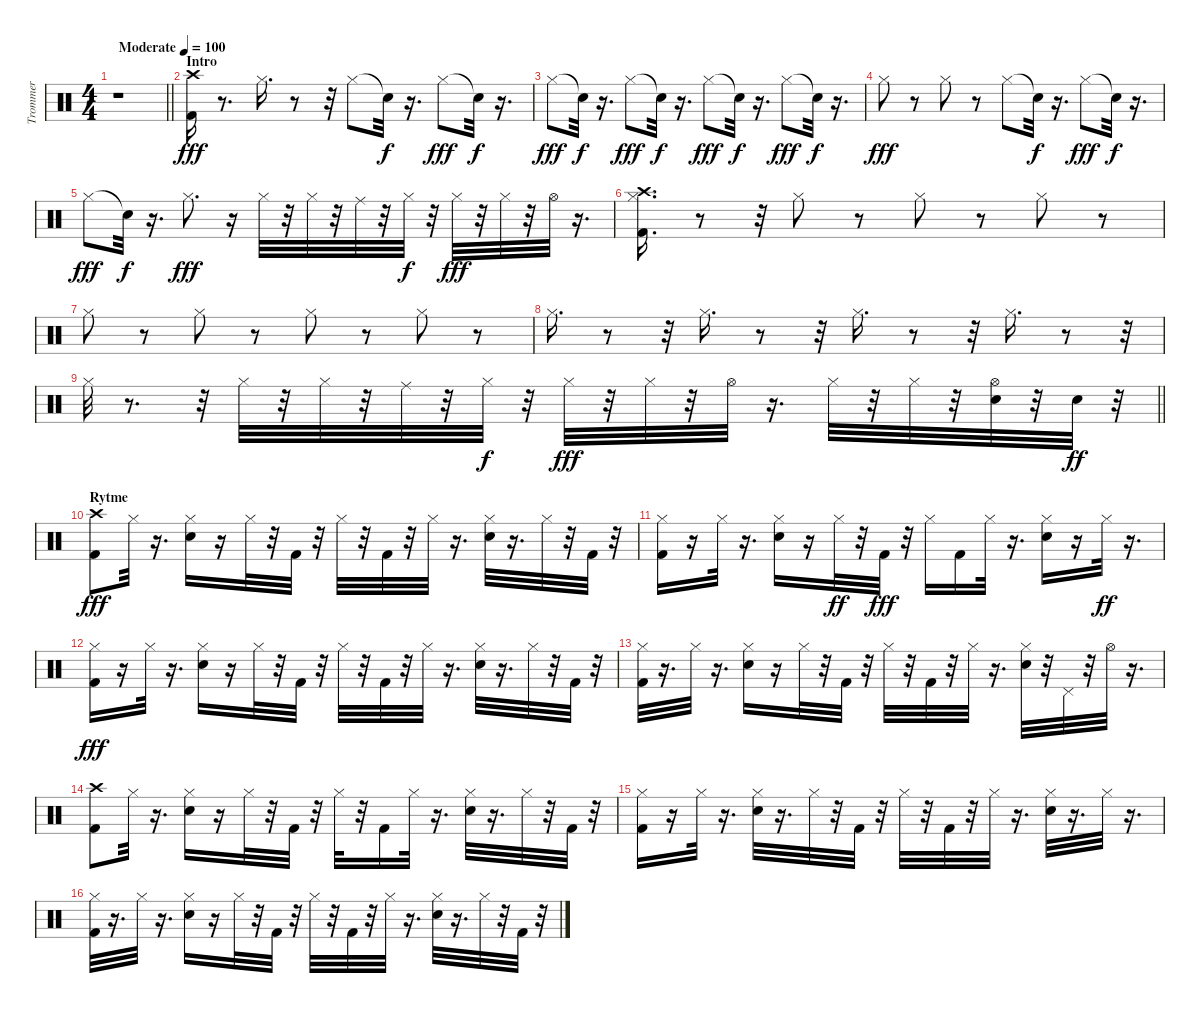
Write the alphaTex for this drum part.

\track ("Trommer" "Trommer") {instrument percussion}
\staff {score}
\articulation defaults
\ts (4 4)
\tempo (100 "Moderate")
\clef neutral
\barLineRight lightlight
\ks c
r.1{dy fff} |
\section ("" "Intro")
("Kick (hit) 2" "Crash high (hit)").16 r.8{d} "Hi-Hat (closed)".16{d} r.8 r.32 "Hi-Hat (closed)".8 "Snare (hit)"{t}.32{dy f} r.16{d} "Hi-Hat (closed)".8{dy fff} "Snare (hit)"{t}.32{dy f} r.16{d} |
"Hi-Hat (closed)".8{dy fff} "Snare (hit)"{t}.32{dy f} r.16{d} "Hi-Hat (closed)".8{dy fff} "Snare (hit)"{t}.32{dy f} r.16{d} "Hi-Hat (closed)".8{dy fff} "Snare (hit)"{t}.32{dy f} r.16{d} "Hi-Hat (closed)".8{dy fff} "Snare (hit)"{t}.32{dy f} r.16{d} |
"Hi-Hat (closed)".8{dy fff} r.8 "Hi-Hat (closed)".8 r.8 "Hi-Hat (closed)".8 "Snare (hit)"{t}.32{dy f} r.16{d} "Hi-Hat (closed)".8{dy fff} "Snare (hit)"{t}.32{dy f} r.16{d} |
"Hi-Hat (closed)".8{dy fff} "Snare (hit)"{t}.32{dy f} r.16{d} "Hi-Hat (closed)".8{d dy fff} r.16 "Hi-Hat (closed)".32 r.32 "Hi-Hat (closed)".32 r.32 "Ride (middle)".32 r.32 "Hi-Hat (closed)".32{dy f} r.32 "Hi-Hat (closed)".32{dy fff} r.32 "Hi-Hat (closed)".32 r.32 "Hi-Hat (open)".32 r.16{d} |
("Kick (hit) 2" "Hi-Hat (closed)" "Crash high (hit)").16{d} r.8 r.32 "Hi-Hat (closed)".8 r.8 "Hi-Hat (closed)".8 r.8 "Hi-Hat (closed)".8 r.8 |
"Hi-Hat (closed)".8 r.8 "Hi-Hat (closed)".8 r.8 "Hi-Hat (closed)".8 r.8 "Hi-Hat (closed)".8 r.8 |
"Hi-Hat (closed)".16{d} r.8 r.32 "Hi-Hat (closed)".16{d} r.8 r.32 "Hi-Hat (closed)".16{d} r.8 r.32 "Hi-Hat (closed)".16{d} r.8 r.32 |
\barLineRight lightlight "Hi-Hat (closed)".32
r.8{d} r.32 "Hi-Hat (closed)".32 r.32 "Hi-Hat (closed)".32 r.32 "Ride (middle)".32 r.32 "Hi-Hat (closed)".32{dy f} r.32 "Hi-Hat (closed)".32{dy fff} r.32 "Hi-Hat (closed)".32 r.32 "Hi-Hat (open)".32 r.16{d} "Hi-Hat (closed)".32 r.32 "Hi-Hat (closed)".32 r.32 ("Snare (hit) 2" "Hi-Hat (open)").32 r.32 "Snare (hit) 2".32{dy ff} r.32 |
\section ("" "Rytme")
("Kick (hit) 2" "Crash high (hit)").8{dy fff} "Hi-Hat (closed)".32 r.16{d} ("Snare (hit) 2" "Hi-Hat (closed)").16 r.16 "Hi-Hat (closed)".32 r.32 "Kick (hit) 2".32 r.32 "Hi-Hat (closed)".32 r.32 "Kick (hit) 2".32 r.32 "Hi-Hat (closed)".32 r.16{d} ("Snare (hit) 2" "Hi-Hat (closed)").32 r.16{d} "Hi-Hat (closed)".32 r.32 "Kick (hit) 2".32 r.32 |
("Kick (hit) 2" "Hi-Hat (closed)").16 r.16 "Hi-Hat (closed)".32 r.16{d} ("Snare (hit) 2" "Hi-Hat (closed)").16 r.16 "Hi-Hat (closed)".32{dy ff} r.32 "Kick (hit) 2".32{dy fff} r.32 "Hi-Hat (closed)".16 "Kick (hit) 2".16 "Hi-Hat (closed)".32 r.16{d} ("Snare (hit) 2" "Hi-Hat (closed)").16 r.16 "Hi-Hat (closed)".32{dy ff} r.16{d} |
("Kick (hit) 2" "Hi-Hat (closed)").16{dy fff} r.16 "Hi-Hat (closed)".32 r.16{d} ("Snare (hit) 2" "Hi-Hat (closed)").16 r.16 "Hi-Hat (closed)".32 r.32 "Kick (hit) 2".32 r.32 "Hi-Hat (closed)".32 r.32 "Kick (hit) 2".32 r.32 "Hi-Hat (closed)".32 r.16{d} ("Snare (hit) 2" "Hi-Hat (closed)").32 r.16{d} "Hi-Hat (closed)".32 r.32 "Kick (hit) 2".32 r.32 |
("Kick (hit) 2" "Hi-Hat (closed)").32 r.16{d} "Hi-Hat (closed)".32 r.16{d} ("Snare (hit) 2" "Hi-Hat (closed)").16 r.16 "Hi-Hat (closed)".32 r.32 "Kick (hit) 2".32 r.32 "Hi-Hat (closed)".32 r.32 "Kick (hit) 2".32 r.32 "Hi-Hat (closed)".32 r.16{d} ("Snare (hit) 2" "Hi-Hat (closed)").32 r.32 "Pedal Hi-Hat (hit)".32 r.32 "Hi-Hat (open)".32 r.16{d} |
("Kick (hit) 2" "Crash high (hit)").8 "Hi-Hat (closed)".32 r.16{d} ("Snare (hit) 2" "Hi-Hat (closed)").16 r.16 "Hi-Hat (closed)".32 r.32 "Kick (hit) 2".32 r.32 "Hi-Hat (closed)".32 r.32 "Kick (hit) 2".16 "Hi-Hat (closed)".32 r.16{d} ("Snare (hit) 2" "Hi-Hat (closed)").32 r.16{d} "Hi-Hat (closed)".32 r.32 "Kick (hit) 2".32 r.32 |
("Kick (hit) 2" "Hi-Hat (closed)").16 r.16 "Hi-Hat (closed)".32 r.16{d} ("Snare (hit) 2" "Hi-Hat (closed)").32 r.16{d} "Hi-Hat (closed)".32 r.32 "Kick (hit) 2".32 r.32 "Hi-Hat (closed)".32 r.32 "Kick (hit) 2".32 r.32 "Hi-Hat (closed)".32 r.16{d} ("Snare (hit) 2" "Hi-Hat (closed)").32 r.16{d} "Hi-Hat (closed)".32 r.16{d} |
("Kick (hit) 2" "Hi-Hat (closed)").32 r.16{d} "Hi-Hat (closed)".32 r.16{d} ("Snare (hit) 2" "Hi-Hat (closed)").16 r.16 "Hi-Hat (closed)".32 r.32 "Kick (hit) 2".32 r.32 "Hi-Hat (closed)".32 r.32 "Kick (hit) 2".32 r.32 "Hi-Hat (closed)".32 r.16{d} ("Snare (hit) 2" "Hi-Hat (closed)").32 r.16{d} "Hi-Hat (closed)".32 r.32 "Kick (hit) 2".32 r.32
